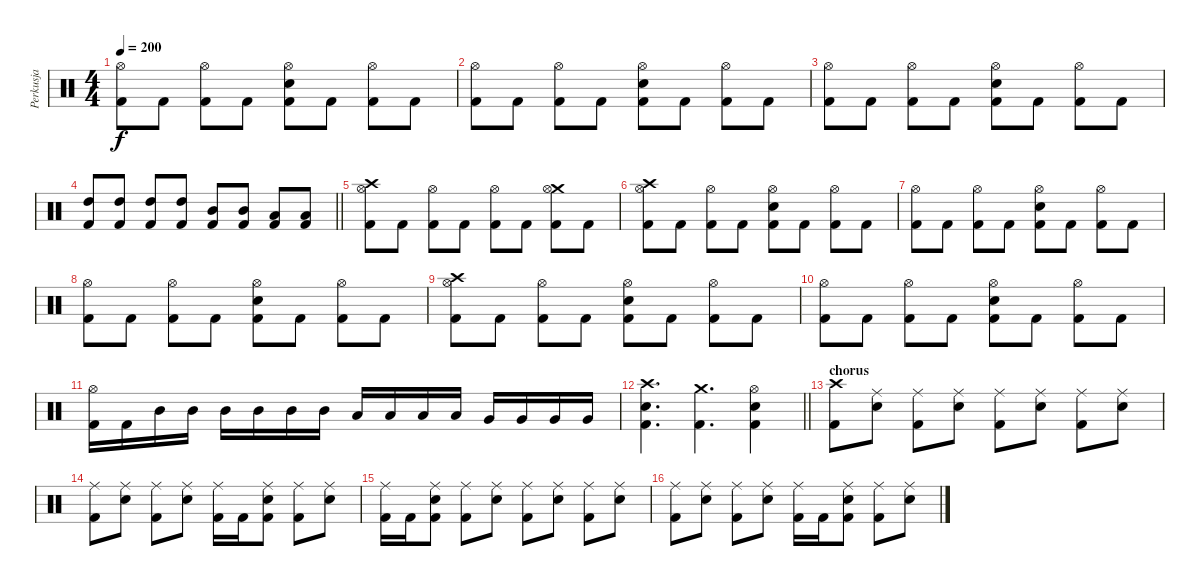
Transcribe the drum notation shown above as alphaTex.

\track ("Perkusja" "Perkusja") {instrument percussion}
\staff {score}
\articulation defaults
\ts (4 4)
\tempo 200
\clef neutral
\ks c
("Hi-Hat (open)" "Kick (hit) 2").8{dy f} "Kick (hit) 2".8 ("Hi-Hat (open)" "Kick (hit) 2").8 "Kick (hit) 2".8 ("Hi-Hat (open)" "Electric Snare (hit)" "Kick (hit) 2").8 "Kick (hit) 2".8 ("Hi-Hat (open)" "Kick (hit) 2").8 "Kick (hit) 2".8 |
("Hi-Hat (open)" "Kick (hit) 2").8 "Kick (hit) 2".8 ("Hi-Hat (open)" "Kick (hit) 2").8 "Kick (hit) 2".8 ("Hi-Hat (open)" "Electric Snare (hit)" "Kick (hit) 2").8 "Kick (hit) 2".8 ("Hi-Hat (open)" "Kick (hit) 2").8 "Kick (hit) 2".8 |
("Hi-Hat (open)" "Kick (hit) 2").8 "Kick (hit) 2".8 ("Hi-Hat (open)" "Kick (hit) 2").8 "Kick (hit) 2".8 ("Hi-Hat (open)" "Electric Snare (hit)" "Kick (hit) 2").8 "Kick (hit) 2".8 ("Hi-Hat (open)" "Kick (hit) 2").8 "Kick (hit) 2".8 |
\barLineRight lightlight
("High Tom (hit)" "Kick (hit) 2").8 ("High Tom (hit)" "Kick (hit) 2").8 ("High Tom (hit)" "Kick (hit) 2").8 ("High Tom (hit)" "Kick (hit) 2").8 ("Mid Tom (hit)" "Kick (hit) 2").8 ("Mid Tom (hit)" "Kick (hit) 2").8 ("Low Tom (hit)" "Kick (hit) 2").8 ("Low Tom (hit)" "Kick (hit) 2").8 |
("Crash high (hit)" "Hi-Hat (open)" "Kick (hit) 2").8 "Kick (hit) 2".8 ("Hi-Hat (open)" "Kick (hit) 2").8 "Kick (hit) 2".8 ("Hi-Hat (open)" "Kick (hit) 2").8 "Kick (hit) 2".8 ("Crash medium (hit)" "Hi-Hat (open)" "Kick (hit) 2").8 "Kick (hit) 2".8 |
("Crash high (hit)" "Hi-Hat (open)" "Kick (hit) 2").8 "Kick (hit) 2".8 ("Hi-Hat (open)" "Kick (hit) 2").8 "Kick (hit) 2".8 ("Hi-Hat (open)" "Electric Snare (hit)" "Kick (hit) 2").8 "Kick (hit) 2".8 ("Hi-Hat (open)" "Kick (hit) 2").8 "Kick (hit) 2".8 |
("Hi-Hat (open)" "Kick (hit) 2").8 "Kick (hit) 2".8 ("Hi-Hat (open)" "Kick (hit) 2").8 "Kick (hit) 2".8 ("Hi-Hat (open)" "Electric Snare (hit)" "Kick (hit) 2").8 "Kick (hit) 2".8 ("Hi-Hat (open)" "Kick (hit) 2").8 "Kick (hit) 2".8 |
("Hi-Hat (open)" "Kick (hit) 2").8 "Kick (hit) 2".8 ("Hi-Hat (open)" "Kick (hit) 2").8 "Kick (hit) 2".8 ("Hi-Hat (open)" "Electric Snare (hit)" "Kick (hit) 2").8 "Kick (hit) 2".8 ("Hi-Hat (open)" "Kick (hit) 2").8 "Kick (hit) 2".8 |
("Crash high (hit)" "Hi-Hat (open)" "Kick (hit) 2").8 "Kick (hit) 2".8 ("Hi-Hat (open)" "Kick (hit) 2").8 "Kick (hit) 2".8 ("Hi-Hat (open)" "Electric Snare (hit)" "Kick (hit) 2").8 "Kick (hit) 2".8 ("Hi-Hat (open)" "Kick (hit) 2").8 "Kick (hit) 2".8 |
("Hi-Hat (open)" "Kick (hit) 2").8 "Kick (hit) 2".8 ("Hi-Hat (open)" "Kick (hit) 2").8 "Kick (hit) 2".8 ("Hi-Hat (open)" "Electric Snare (hit)" "Kick (hit) 2").8 "Kick (hit) 2".8 ("Hi-Hat (open)" "Kick (hit) 2").8 "Kick (hit) 2".8 |
("Hi-Hat (open)" "Kick (hit) 2").16 "Kick (hit) 2".16 "Mid Tom (hit)".16 "Mid Tom (hit)".16 "Mid Tom (hit)".16 "Mid Tom (hit)".16 "Mid Tom (hit)".16 "Mid Tom (hit)".16 "Low Tom (hit)".16 "Low Tom (hit)".16 "Low Tom (hit)".16 "Low Tom (hit)".16 "Very Low Tom (hit)".16 "Very Low Tom (hit)".16 "Very Low Tom (hit)".16 "Very Low Tom (hit)".16 |
\barLineRight lightlight
("Crash high (hit)" "Electric Snare (hit)" "Kick (hit) 2").4{d} ("Crash medium (hit)" "Kick (hit) 2").4{d} ("Hi-Hat (open)" "Electric Snare (hit)" "Kick (hit) 2").4 |
\section ("" "chorus")
("Crash high (hit)" "Kick (hit) 2").8 ("Ride (middle)" "Electric Snare (hit)").8 ("Ride (middle)" "Kick (hit) 2").8 ("Ride (middle)" "Electric Snare (hit)").8 ("Ride (middle)" "Kick (hit) 2").8 ("Ride (middle)" "Electric Snare (hit)").8 ("Ride (middle)" "Kick (hit) 2").8 ("Ride (middle)" "Electric Snare (hit)").8 |
("Ride (middle)" "Kick (hit) 2").8 ("Ride (middle)" "Electric Snare (hit)").8 ("Ride (middle)" "Kick (hit) 2").8 ("Ride (middle)" "Electric Snare (hit)").8 ("Ride (middle)" "Kick (hit) 2").16 "Kick (hit) 2".16 ("Ride (middle)" "Electric Snare (hit)" "Kick (hit) 2").8 ("Ride (middle)" "Kick (hit) 2").8 ("Ride (middle)" "Electric Snare (hit)").8 |
("Ride (middle)" "Kick (hit) 2").16 "Kick (hit) 2".16 ("Ride (middle)" "Electric Snare (hit)" "Kick (hit) 2").8 ("Ride (middle)" "Kick (hit) 2").8 ("Ride (middle)" "Electric Snare (hit)").8 ("Ride (middle)" "Kick (hit) 2").8 ("Ride (middle)" "Electric Snare (hit)").8 ("Ride (middle)" "Kick (hit) 2").8 ("Ride (middle)" "Electric Snare (hit)").8 |
("Ride (middle)" "Kick (hit) 2").8 ("Ride (middle)" "Electric Snare (hit)").8 ("Ride (middle)" "Kick (hit) 2").8 ("Ride (middle)" "Electric Snare (hit)").8 ("Ride (middle)" "Kick (hit) 2").16 "Kick (hit) 2".16 ("Ride (middle)" "Electric Snare (hit)" "Kick (hit) 2").8 ("Ride (middle)" "Kick (hit) 2").8 ("Ride (middle)" "Electric Snare (hit)").8
